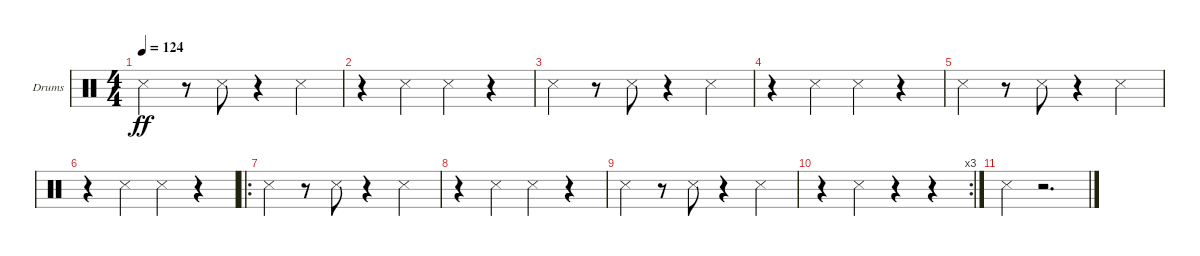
\bracketExtendMode groupsimilarinstruments
\firstSystemTrackNameOrientation horizontal
\otherSystemsTrackNameOrientation horizontal
\track ("Sidestick Clave Pattern" "Drums") {instrument percussion}
\staff {score}
\articulation defaults
\ts (4 4)
\tempo 124
\clef neutral
\scale
0.333333
\ks c "Snare (side stick) 3".4{dy ff}
r.8 "Snare (side stick) 3".8 r.4 "Snare (side stick) 3".4 |
\scale
0.333333 r.4 "Snare (side stick) 3".4 "Snare (side stick) 3".4 r.4 |
\scale
0.333333 "Snare (side stick) 3".4 r.8 "Snare (side stick) 3".8 r.4 "Snare (side stick) 3".4 |
\scale
0.333333 r.4 "Snare (side stick) 3".4 "Snare (side stick) 3".4 r.4 |
\scale
0.311111 "Snare (side stick) 3".4 r.8 "Snare (side stick) 3".8 r.4 "Snare (side stick) 3".4 |
\scale
0.311111 r.4 "Snare (side stick) 3".4 "Snare (side stick) 3".4 r.4 |
\ro
\scale
0.377778 "Snare (side stick) 3".4 r.8 "Snare (side stick) 3".8 r.4 "Snare (side stick) 3".4 |
r.4 "Snare (side stick) 3".4 "Snare (side stick) 3".4 r.4 |
"Snare (side stick) 3".4 r.8 "Snare (side stick) 3".8 r.4 "Snare (side stick) 3".4 |
\rc 3
r.4 "Snare (side stick) 3".4 r.4 r.4 |
"Snare (side stick) 3".4 r.2{d}
